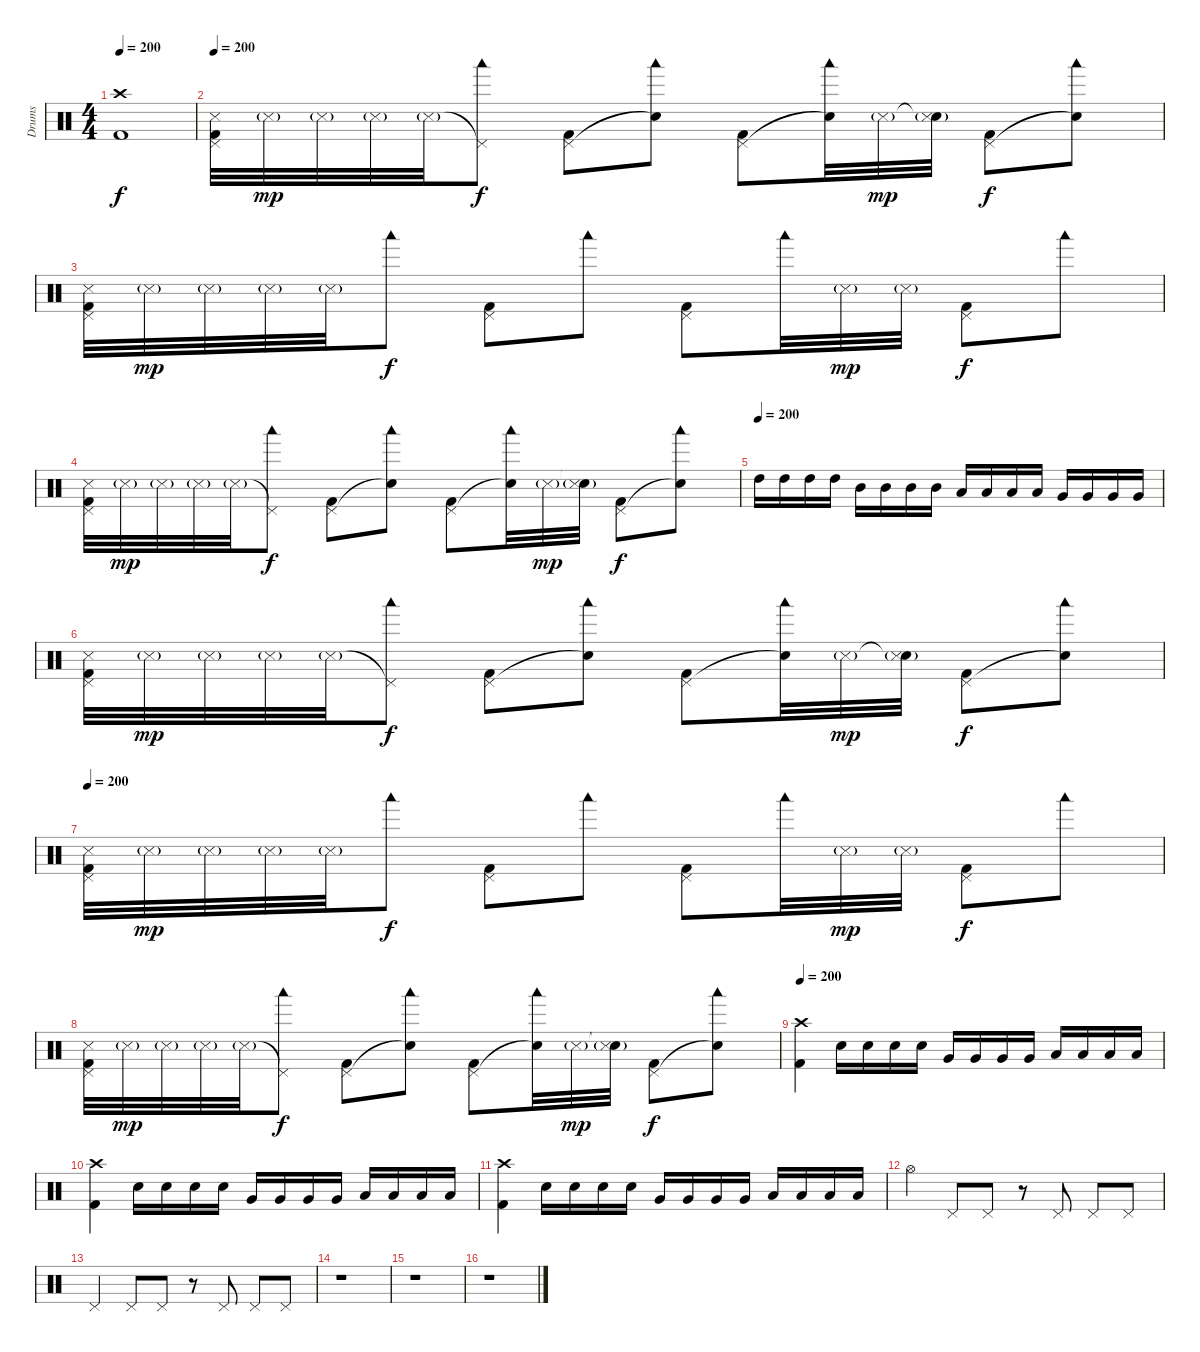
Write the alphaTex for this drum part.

\track ("Drums" "Drums") {instrument percussion}
\staff {score}
\articulation defaults
\ts (4 4)
\tempo 200
\clef neutral
\ks c
("Crash high (hit)" "Kick (hit) 2").1{dy f} |
\tempo 200
("Pedal Hi-Hat (hit)" "Metronome (hit)" "Kick (hit) 2").32 "Metronome (hit)"{g}.32{dy mp} "Metronome (hit)"{g}.32 "Metronome (hit)"{g}.32 "Metronome (hit)"{g}.32 ("Pedal Hi-Hat (hit)"{t} "Woodblock low (hit)").8{dy f} ("Pedal Hi-Hat (hit)" "Kick (hit) 2").8 ("Snare (hit)"{t} "Woodblock low (hit)").8 ("Pedal Hi-Hat (hit)" "Kick (hit) 2").8 ("Snare (hit)"{t} "Woodblock low (hit)").32 "Metronome (hit)"{g}.32{dy mp} ("Snare (hit)"{t} "Metronome (hit)"{g}).32 ("Pedal Hi-Hat (hit)" "Kick (hit) 2").8{dy f} ("Snare (hit)"{t} "Woodblock low (hit)").8 |
("Pedal Hi-Hat (hit)" "Metronome (hit)" "Kick (hit) 2").32 "Metronome (hit)"{g}.32{dy mp} "Metronome (hit)"{g}.32 "Metronome (hit)"{g}.32 "Metronome (hit)"{g}.32 "Woodblock low (hit)".8{dy f} ("Pedal Hi-Hat (hit)" "Kick (hit) 2").8 "Woodblock low (hit)".8 ("Pedal Hi-Hat (hit)" "Kick (hit) 2").8 "Woodblock low (hit)".32 "Metronome (hit)"{g}.32{dy mp} "Metronome (hit)"{g}.32 ("Pedal Hi-Hat (hit)" "Kick (hit) 2").8{dy f} "Woodblock low (hit)".8 |
("Pedal Hi-Hat (hit)" "Metronome (hit)" "Kick (hit) 2").32 "Metronome (hit)"{g}.32{dy mp} "Metronome (hit)"{g}.32 "Metronome (hit)"{g}.32 "Metronome (hit)"{g}.32 ("Pedal Hi-Hat (hit)"{t} "Woodblock low (hit)").8{dy f} ("Pedal Hi-Hat (hit)" "Kick (hit) 2").8 ("Snare (hit)"{t} "Woodblock low (hit)").8 ("Pedal Hi-Hat (hit)" "Kick (hit) 2").8 ("Snare (hit)"{t} "Woodblock low (hit)").32 "Metronome (hit)"{g}.32{dy mp} ("Snare (hit)"{t} "Metronome (hit)"{g}).32 ("Pedal Hi-Hat (hit)" "Kick (hit) 2").8{dy f} ("Snare (hit)"{t} "Woodblock low (hit)").8 |
\tempo (200)
"High Tom (hit)".16 "High Tom (hit)".16 "High Tom (hit)".16 "High Tom (hit)".16 "Mid Tom (hit)".16 "Mid Tom (hit)".16 "Mid Tom (hit)".16 "Mid Tom (hit)".16 "Low Tom (hit)".16 "Low Tom (hit)".16 "Low Tom (hit)".16 "Low Tom (hit)".16 "Very Low Tom (hit)".16 "Very Low Tom (hit)".16 "Very Low Tom (hit)".16 "Very Low Tom (hit)".16 |
("Pedal Hi-Hat (hit)" "Metronome (hit)" "Kick (hit) 2").32 "Metronome (hit)"{g}.32{dy mp} "Metronome (hit)"{g}.32 "Metronome (hit)"{g}.32 "Metronome (hit)"{g}.32 ("Pedal Hi-Hat (hit)"{t} "Woodblock low (hit)").8{dy f} ("Pedal Hi-Hat (hit)" "Kick (hit) 2").8 ("Snare (hit)"{t} "Woodblock low (hit)").8 ("Pedal Hi-Hat (hit)" "Kick (hit) 2").8 ("Snare (hit)"{t} "Woodblock low (hit)").32 "Metronome (hit)"{g}.32{dy mp} ("Snare (hit)"{t} "Metronome (hit)"{g}).32 ("Pedal Hi-Hat (hit)" "Kick (hit) 2").8{dy f} ("Snare (hit)"{t} "Woodblock low (hit)").8 |
\tempo 200
("Pedal Hi-Hat (hit)" "Metronome (hit)" "Kick (hit) 2").32 "Metronome (hit)"{g}.32{dy mp} "Metronome (hit)"{g}.32 "Metronome (hit)"{g}.32 "Metronome (hit)"{g}.32 "Woodblock low (hit)".8{dy f} ("Pedal Hi-Hat (hit)" "Kick (hit) 2").8 "Woodblock low (hit)".8 ("Pedal Hi-Hat (hit)" "Kick (hit) 2").8 "Woodblock low (hit)".32 "Metronome (hit)"{g}.32{dy mp} "Metronome (hit)"{g}.32 ("Pedal Hi-Hat (hit)" "Kick (hit) 2").8{dy f} "Woodblock low (hit)".8 |
("Pedal Hi-Hat (hit)" "Metronome (hit)" "Kick (hit) 2").32 "Metronome (hit)"{g}.32{dy mp} "Metronome (hit)"{g}.32 "Metronome (hit)"{g}.32 "Metronome (hit)"{g}.32 ("Pedal Hi-Hat (hit)"{t} "Woodblock low (hit)").8{dy f} ("Pedal Hi-Hat (hit)" "Kick (hit) 2").8 ("Snare (hit)"{t} "Woodblock low (hit)").8 ("Pedal Hi-Hat (hit)" "Kick (hit) 2").8 ("Snare (hit)"{t} "Woodblock low (hit)").32 "Metronome (hit)"{g}.32{dy mp} ("Snare (hit)"{t} "Metronome (hit)"{g}).32 ("Pedal Hi-Hat (hit)" "Kick (hit) 2").8{dy f} ("Snare (hit)"{t} "Woodblock low (hit)").8 |
\tempo 200
("Crash high (hit)" "Kick (hit) 2").4 "Snare (hit) 2".16 "Snare (hit) 2".16 "Snare (hit) 2".16 "Snare (hit) 2".16 "Very Low Tom (hit)".16 "Very Low Tom (hit)".16 "Very Low Tom (hit)".16 "Very Low Tom (hit)".16 "Low Floor Tom (hit)".16 "Low Floor Tom (hit)".16 "Low Floor Tom (hit)".16 "Low Floor Tom (hit)".16 |
("Crash high (hit)" "Kick (hit) 2").4 "Snare (hit) 2".16 "Snare (hit) 2".16 "Snare (hit) 2".16 "Snare (hit) 2".16 "Very Low Tom (hit)".16 "Very Low Tom (hit)".16 "Very Low Tom (hit)".16 "Very Low Tom (hit)".16 "Low Floor Tom (hit)".16 "Low Floor Tom (hit)".16 "Low Floor Tom (hit)".16 "Low Floor Tom (hit)".16 |
("Crash high (hit)" "Kick (hit) 2").4 "Snare (hit) 2".16 "Snare (hit) 2".16 "Snare (hit) 2".16 "Snare (hit) 2".16 "Very Low Tom (hit)".16 "Very Low Tom (hit)".16 "Very Low Tom (hit)".16 "Very Low Tom (hit)".16 "Low Floor Tom (hit)".16 "Low Floor Tom (hit)".16 "Low Floor Tom (hit)".16 "Low Floor Tom (hit)".16 |
"Hi-Hat (open)".4 "Pedal Hi-Hat (hit)".8 "Pedal Hi-Hat (hit)".8 r.8 "Pedal Hi-Hat (hit)".8 "Pedal Hi-Hat (hit)".8 "Pedal Hi-Hat (hit)".8 |
"Pedal Hi-Hat (hit)".4 "Pedal Hi-Hat (hit)".8 "Pedal Hi-Hat (hit)".8 r.8 "Pedal Hi-Hat (hit)".8 "Pedal Hi-Hat (hit)".8 "Pedal Hi-Hat (hit)".8 |
r.1 |
r.1 |
r.1
